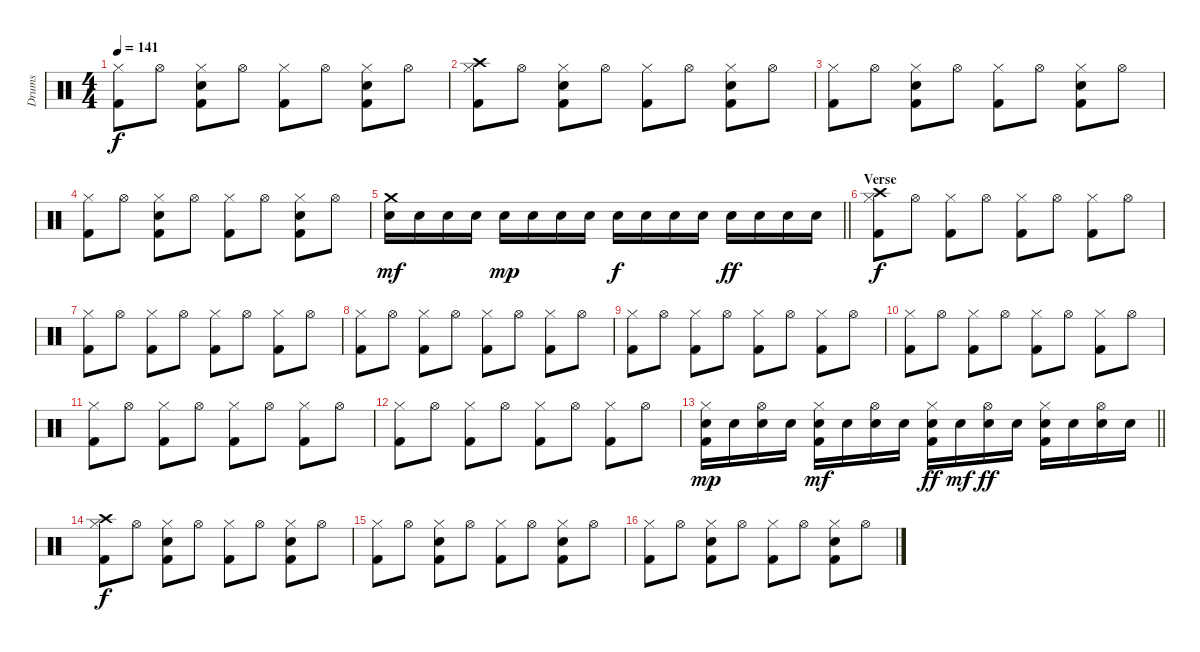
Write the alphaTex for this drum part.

\track ("Drums" "Drums") {instrument percussion}
\staff {score}
\articulation defaults
\ts (4 4)
\tempo 141
\clef neutral
\ks c
("Hi-Hat (closed)" "Kick (hit) 2").8{dy f} "Hi-Hat (open)".8 ("Hi-Hat (closed)" "Snare (hit) 2" "Kick (hit) 2").8 "Hi-Hat (open)".8 ("Hi-Hat (closed)" "Kick (hit) 2").8 "Hi-Hat (open)".8 ("Hi-Hat (closed)" "Snare (hit) 2" "Kick (hit) 2").8 "Hi-Hat (open)".8 |
("Hi-Hat (closed)" "Crash high (hit)" "Kick (hit) 2").8 "Hi-Hat (open)".8 ("Hi-Hat (closed)" "Snare (hit) 2" "Kick (hit) 2").8 "Hi-Hat (open)".8 ("Hi-Hat (closed)" "Kick (hit) 2").8 "Hi-Hat (open)".8 ("Hi-Hat (closed)" "Snare (hit) 2" "Kick (hit) 2").8 "Hi-Hat (open)".8 |
("Hi-Hat (closed)" "Kick (hit) 2").8 "Hi-Hat (open)".8 ("Hi-Hat (closed)" "Snare (hit) 2" "Kick (hit) 2").8 "Hi-Hat (open)".8 ("Hi-Hat (closed)" "Kick (hit) 2").8 "Hi-Hat (open)".8 ("Hi-Hat (closed)" "Snare (hit) 2" "Kick (hit) 2").8 "Hi-Hat (open)".8 |
("Hi-Hat (closed)" "Kick (hit) 2").8 "Hi-Hat (open)".8 ("Hi-Hat (closed)" "Snare (hit) 2" "Kick (hit) 2").8 "Hi-Hat (open)".8 ("Hi-Hat (closed)" "Kick (hit) 2").8 "Hi-Hat (open)".8 ("Hi-Hat (closed)" "Snare (hit) 2" "Kick (hit) 2").8 "Hi-Hat (open)".8 |
\barLineRight lightlight
("Crash medium (hit)" "Snare (hit) 2").16{dy mf} "Snare (hit) 2".16 "Snare (hit) 2".16 "Snare (hit) 2".16 "Snare (hit) 2".16{dy mp} "Snare (hit) 2".16 "Snare (hit) 2".16 "Snare (hit) 2".16 "Snare (hit) 2".16{dy f} "Snare (hit) 2".16 "Snare (hit) 2".16 "Snare (hit) 2".16 "Snare (hit) 2".16{dy ff} "Snare (hit) 2".16 "Snare (hit) 2".16 "Snare (hit) 2".16 |
\section ("" "Verse")
("Hi-Hat (closed)" "Crash high (hit)" "Kick (hit) 2").8{dy f} "Hi-Hat (open)".8 ("Hi-Hat (closed)" "Kick (hit) 2").8 "Hi-Hat (open)".8 ("Hi-Hat (closed)" "Kick (hit) 2").8 "Hi-Hat (open)".8 ("Hi-Hat (closed)" "Kick (hit) 2").8 "Hi-Hat (open)".8 |
("Hi-Hat (closed)" "Kick (hit) 2").8 "Hi-Hat (open)".8 ("Hi-Hat (closed)" "Kick (hit) 2").8 "Hi-Hat (open)".8 ("Hi-Hat (closed)" "Kick (hit) 2").8 "Hi-Hat (open)".8 ("Hi-Hat (closed)" "Kick (hit) 2").8 "Hi-Hat (open)".8 |
("Hi-Hat (closed)" "Kick (hit) 2").8 "Hi-Hat (open)".8 ("Hi-Hat (closed)" "Kick (hit) 2").8 "Hi-Hat (open)".8 ("Hi-Hat (closed)" "Kick (hit) 2").8 "Hi-Hat (open)".8 ("Hi-Hat (closed)" "Kick (hit) 2").8 "Hi-Hat (open)".8 |
("Hi-Hat (closed)" "Kick (hit) 2").8 "Hi-Hat (open)".8 ("Hi-Hat (closed)" "Kick (hit) 2").8 "Hi-Hat (open)".8 ("Hi-Hat (closed)" "Kick (hit) 2").8 "Hi-Hat (open)".8 ("Hi-Hat (closed)" "Kick (hit) 2").8 "Hi-Hat (open)".8 |
("Hi-Hat (closed)" "Kick (hit) 2").8 "Hi-Hat (open)".8 ("Hi-Hat (closed)" "Kick (hit) 2").8 "Hi-Hat (open)".8 ("Hi-Hat (closed)" "Kick (hit) 2").8 "Hi-Hat (open)".8 ("Hi-Hat (closed)" "Kick (hit) 2").8 "Hi-Hat (open)".8 |
("Hi-Hat (closed)" "Kick (hit) 2").8 "Hi-Hat (open)".8 ("Hi-Hat (closed)" "Kick (hit) 2").8 "Hi-Hat (open)".8 ("Hi-Hat (closed)" "Kick (hit) 2").8 "Hi-Hat (open)".8 ("Hi-Hat (closed)" "Kick (hit) 2").8 "Hi-Hat (open)".8 |
("Hi-Hat (closed)" "Kick (hit) 2").8 "Hi-Hat (open)".8 ("Hi-Hat (closed)" "Kick (hit) 2").8 "Hi-Hat (open)".8 ("Hi-Hat (closed)" "Kick (hit) 2").8 "Hi-Hat (open)".8 ("Hi-Hat (closed)" "Kick (hit) 2").8 "Hi-Hat (open)".8 |
\barLineRight lightlight
("Hi-Hat (closed)" "Snare (hit) 2" "Kick (hit) 2").16{dy mp} "Snare (hit) 2".16 ("Hi-Hat (open)" "Snare (hit) 2").16 "Snare (hit) 2".16 ("Hi-Hat (closed)" "Snare (hit) 2" "Kick (hit) 2").16{dy mf} "Snare (hit) 2".16 ("Hi-Hat (open)" "Snare (hit) 2").16 "Snare (hit) 2".16 ("Hi-Hat (closed)" "Snare (hit) 2" "Kick (hit) 2").16{dy ff} "Snare (hit) 2".16{dy mf} ("Hi-Hat (open)" "Snare (hit) 2").16{dy ff} "Snare (hit) 2".16 ("Hi-Hat (closed)" "Snare (hit) 2" "Kick (hit) 2").16 "Snare (hit) 2".16 ("Hi-Hat (open)" "Snare (hit) 2").16 "Snare (hit) 2".16 |
("Hi-Hat (closed)" "Crash high (hit)" "Kick (hit) 2").8{dy f} "Hi-Hat (open)".8 ("Hi-Hat (closed)" "Snare (hit) 2" "Kick (hit) 2").8 "Hi-Hat (open)".8 ("Hi-Hat (closed)" "Kick (hit) 2").8 "Hi-Hat (open)".8 ("Hi-Hat (closed)" "Snare (hit) 2" "Kick (hit) 2").8 "Hi-Hat (open)".8 |
("Hi-Hat (closed)" "Kick (hit) 2").8 "Hi-Hat (open)".8 ("Hi-Hat (closed)" "Snare (hit) 2" "Kick (hit) 2").8 "Hi-Hat (open)".8 ("Hi-Hat (closed)" "Kick (hit) 2").8 "Hi-Hat (open)".8 ("Hi-Hat (closed)" "Snare (hit) 2" "Kick (hit) 2").8 "Hi-Hat (open)".8 |
("Hi-Hat (closed)" "Kick (hit) 2").8 "Hi-Hat (open)".8 ("Hi-Hat (closed)" "Snare (hit) 2" "Kick (hit) 2").8 "Hi-Hat (open)".8 ("Hi-Hat (closed)" "Kick (hit) 2").8 "Hi-Hat (open)".8 ("Hi-Hat (closed)" "Snare (hit) 2" "Kick (hit) 2").8 "Hi-Hat (open)".8
